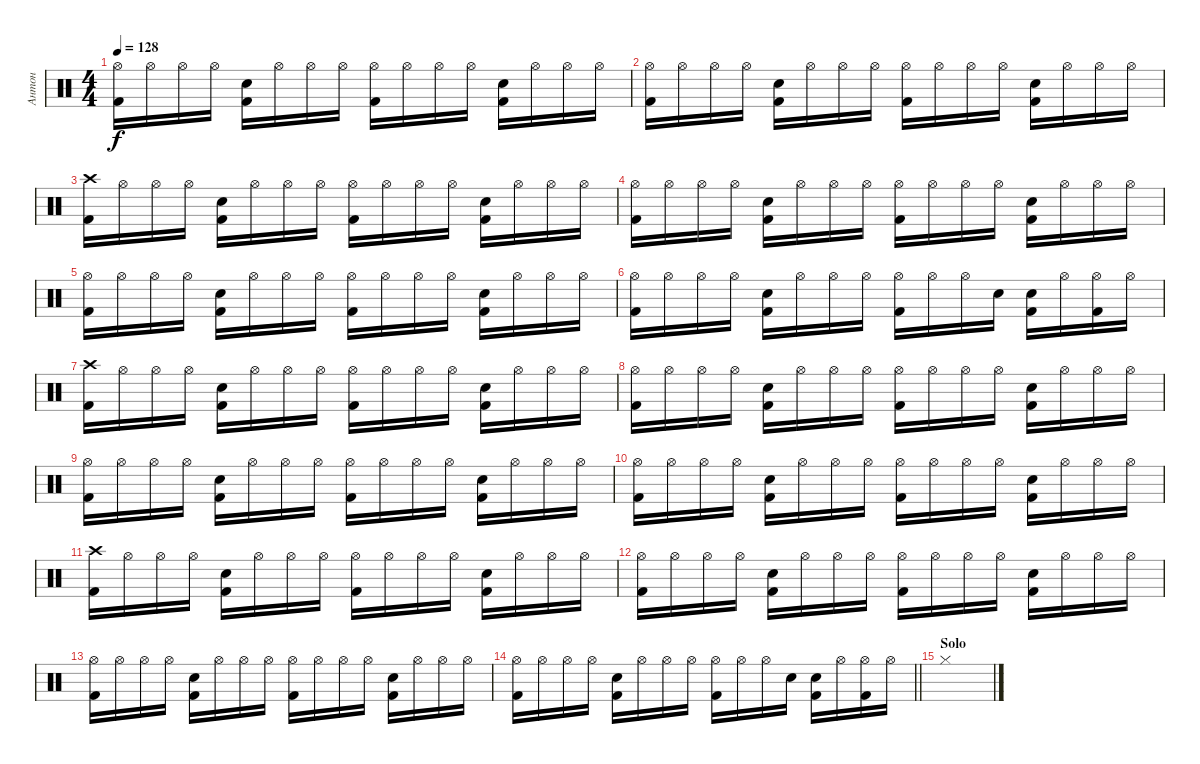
\track ("Антон" "Антон") {instrument percussion}
\staff {score}
\articulation defaults
\ts (4 4)
\tempo 128
\clef neutral
\ks c
("Hi-Hat (open)" "Kick (hit) 2").16{dy f} "Hi-Hat (open)".16 "Hi-Hat (open)".16 "Hi-Hat (open)".16 ("Snare (hit) 2" "Kick (hit) 2").16 "Hi-Hat (open)".16 "Hi-Hat (open)".16 "Hi-Hat (open)".16 ("Hi-Hat (open)" "Kick (hit) 2").16 "Hi-Hat (open)".16 "Hi-Hat (open)".16 "Hi-Hat (open)".16 ("Snare (hit) 2" "Kick (hit) 2").16 "Hi-Hat (open)".16 "Hi-Hat (open)".16 "Hi-Hat (open)".16 |
("Hi-Hat (open)" "Kick (hit) 2").16 "Hi-Hat (open)".16 "Hi-Hat (open)".16 "Hi-Hat (open)".16 ("Snare (hit) 2" "Kick (hit) 2").16 "Hi-Hat (open)".16 "Hi-Hat (open)".16 "Hi-Hat (open)".16 ("Hi-Hat (open)" "Kick (hit) 2").16 "Hi-Hat (open)".16 "Hi-Hat (open)".16 "Hi-Hat (open)".16 ("Snare (hit) 2" "Kick (hit) 2").16 "Hi-Hat (open)".16 "Hi-Hat (open)".16 "Hi-Hat (open)".16 |
("Crash high (hit)" "Kick (hit) 2").16 "Hi-Hat (open)".16 "Hi-Hat (open)".16 "Hi-Hat (open)".16 ("Snare (hit) 2" "Kick (hit) 2").16 "Hi-Hat (open)".16 "Hi-Hat (open)".16 "Hi-Hat (open)".16 ("Hi-Hat (open)" "Kick (hit) 2").16 "Hi-Hat (open)".16 "Hi-Hat (open)".16 "Hi-Hat (open)".16 ("Snare (hit) 2" "Kick (hit) 2").16 "Hi-Hat (open)".16 "Hi-Hat (open)".16 "Hi-Hat (open)".16 |
("Hi-Hat (open)" "Kick (hit) 2").16 "Hi-Hat (open)".16 "Hi-Hat (open)".16 "Hi-Hat (open)".16 ("Snare (hit) 2" "Kick (hit) 2").16 "Hi-Hat (open)".16 "Hi-Hat (open)".16 "Hi-Hat (open)".16 ("Hi-Hat (open)" "Kick (hit) 2").16 "Hi-Hat (open)".16 "Hi-Hat (open)".16 "Hi-Hat (open)".16 ("Snare (hit) 2" "Kick (hit) 2").16 "Hi-Hat (open)".16 "Hi-Hat (open)".16 "Hi-Hat (open)".16 |
("Hi-Hat (open)" "Kick (hit) 2").16 "Hi-Hat (open)".16 "Hi-Hat (open)".16 "Hi-Hat (open)".16 ("Snare (hit) 2" "Kick (hit) 2").16 "Hi-Hat (open)".16 "Hi-Hat (open)".16 "Hi-Hat (open)".16 ("Hi-Hat (open)" "Kick (hit) 2").16 "Hi-Hat (open)".16 "Hi-Hat (open)".16 "Hi-Hat (open)".16 ("Snare (hit) 2" "Kick (hit) 2").16 "Hi-Hat (open)".16 "Hi-Hat (open)".16 "Hi-Hat (open)".16 |
("Hi-Hat (open)" "Kick (hit) 2").16 "Hi-Hat (open)".16 "Hi-Hat (open)".16 "Hi-Hat (open)".16 ("Snare (hit) 2" "Kick (hit) 2").16 "Hi-Hat (open)".16 "Hi-Hat (open)".16 "Hi-Hat (open)".16 ("Hi-Hat (open)" "Kick (hit) 2").16 "Hi-Hat (open)".16 "Hi-Hat (open)".16 "Snare (hit) 2".16 ("Snare (hit) 2" "Kick (hit) 2").16 "Hi-Hat (open)".16 ("Hi-Hat (open)" "Kick (hit) 2").16 "Hi-Hat (open)".16 |
("Crash high (hit)" "Kick (hit) 2").16 "Hi-Hat (open)".16 "Hi-Hat (open)".16 "Hi-Hat (open)".16 ("Snare (hit) 2" "Kick (hit) 2").16 "Hi-Hat (open)".16 "Hi-Hat (open)".16 "Hi-Hat (open)".16 ("Hi-Hat (open)" "Kick (hit) 2").16 "Hi-Hat (open)".16 "Hi-Hat (open)".16 "Hi-Hat (open)".16 ("Snare (hit) 2" "Kick (hit) 2").16 "Hi-Hat (open)".16 "Hi-Hat (open)".16 "Hi-Hat (open)".16 |
("Hi-Hat (open)" "Kick (hit) 2").16 "Hi-Hat (open)".16 "Hi-Hat (open)".16 "Hi-Hat (open)".16 ("Snare (hit) 2" "Kick (hit) 2").16 "Hi-Hat (open)".16 "Hi-Hat (open)".16 "Hi-Hat (open)".16 ("Hi-Hat (open)" "Kick (hit) 2").16 "Hi-Hat (open)".16 "Hi-Hat (open)".16 "Hi-Hat (open)".16 ("Snare (hit) 2" "Kick (hit) 2").16 "Hi-Hat (open)".16 "Hi-Hat (open)".16 "Hi-Hat (open)".16 |
("Hi-Hat (open)" "Kick (hit) 2").16 "Hi-Hat (open)".16 "Hi-Hat (open)".16 "Hi-Hat (open)".16 ("Snare (hit) 2" "Kick (hit) 2").16 "Hi-Hat (open)".16 "Hi-Hat (open)".16 "Hi-Hat (open)".16 ("Hi-Hat (open)" "Kick (hit) 2").16 "Hi-Hat (open)".16 "Hi-Hat (open)".16 "Hi-Hat (open)".16 ("Snare (hit) 2" "Kick (hit) 2").16 "Hi-Hat (open)".16 "Hi-Hat (open)".16 "Hi-Hat (open)".16 |
("Hi-Hat (open)" "Kick (hit) 2").16 "Hi-Hat (open)".16 "Hi-Hat (open)".16 "Hi-Hat (open)".16 ("Snare (hit) 2" "Kick (hit) 2").16 "Hi-Hat (open)".16 "Hi-Hat (open)".16 "Hi-Hat (open)".16 ("Hi-Hat (open)" "Kick (hit) 2").16 "Hi-Hat (open)".16 "Hi-Hat (open)".16 "Hi-Hat (open)".16 ("Snare (hit) 2" "Kick (hit) 2").16 "Hi-Hat (open)".16 "Hi-Hat (open)".16 "Hi-Hat (open)".16 |
("Crash high (hit)" "Kick (hit) 2").16 "Hi-Hat (open)".16 "Hi-Hat (open)".16 "Hi-Hat (open)".16 ("Snare (hit) 2" "Kick (hit) 2").16 "Hi-Hat (open)".16 "Hi-Hat (open)".16 "Hi-Hat (open)".16 ("Hi-Hat (open)" "Kick (hit) 2").16 "Hi-Hat (open)".16 "Hi-Hat (open)".16 "Hi-Hat (open)".16 ("Snare (hit) 2" "Kick (hit) 2").16 "Hi-Hat (open)".16 "Hi-Hat (open)".16 "Hi-Hat (open)".16 |
("Hi-Hat (open)" "Kick (hit) 2").16 "Hi-Hat (open)".16 "Hi-Hat (open)".16 "Hi-Hat (open)".16 ("Snare (hit) 2" "Kick (hit) 2").16 "Hi-Hat (open)".16 "Hi-Hat (open)".16 "Hi-Hat (open)".16 ("Hi-Hat (open)" "Kick (hit) 2").16 "Hi-Hat (open)".16 "Hi-Hat (open)".16 "Hi-Hat (open)".16 ("Snare (hit) 2" "Kick (hit) 2").16 "Hi-Hat (open)".16 "Hi-Hat (open)".16 "Hi-Hat (open)".16 |
("Hi-Hat (open)" "Kick (hit) 2").16 "Hi-Hat (open)".16 "Hi-Hat (open)".16 "Hi-Hat (open)".16 ("Snare (hit) 2" "Kick (hit) 2").16 "Hi-Hat (open)".16 "Hi-Hat (open)".16 "Hi-Hat (open)".16 ("Hi-Hat (open)" "Kick (hit) 2").16 "Hi-Hat (open)".16 "Hi-Hat (open)".16 "Hi-Hat (open)".16 ("Snare (hit) 2" "Kick (hit) 2").16 "Hi-Hat (open)".16 "Hi-Hat (open)".16 "Hi-Hat (open)".16 |
\barLineRight lightlight
("Hi-Hat (open)" "Kick (hit) 2").16 "Hi-Hat (open)".16 "Hi-Hat (open)".16 "Hi-Hat (open)".16 ("Snare (hit) 2" "Kick (hit) 2").16 "Hi-Hat (open)".16 "Hi-Hat (open)".16 "Hi-Hat (open)".16 ("Hi-Hat (open)" "Kick (hit) 2").16 "Hi-Hat (open)".16 "Hi-Hat (open)".16 "Snare (hit) 2".16 ("Snare (hit) 2" "Kick (hit) 2").16 "Hi-Hat (open)".16 ("Hi-Hat (open)" "Kick (hit) 2").16 "Hi-Hat (open)".16 |
\section ("" "Solo")
"Hi-Hat (closed)".1
